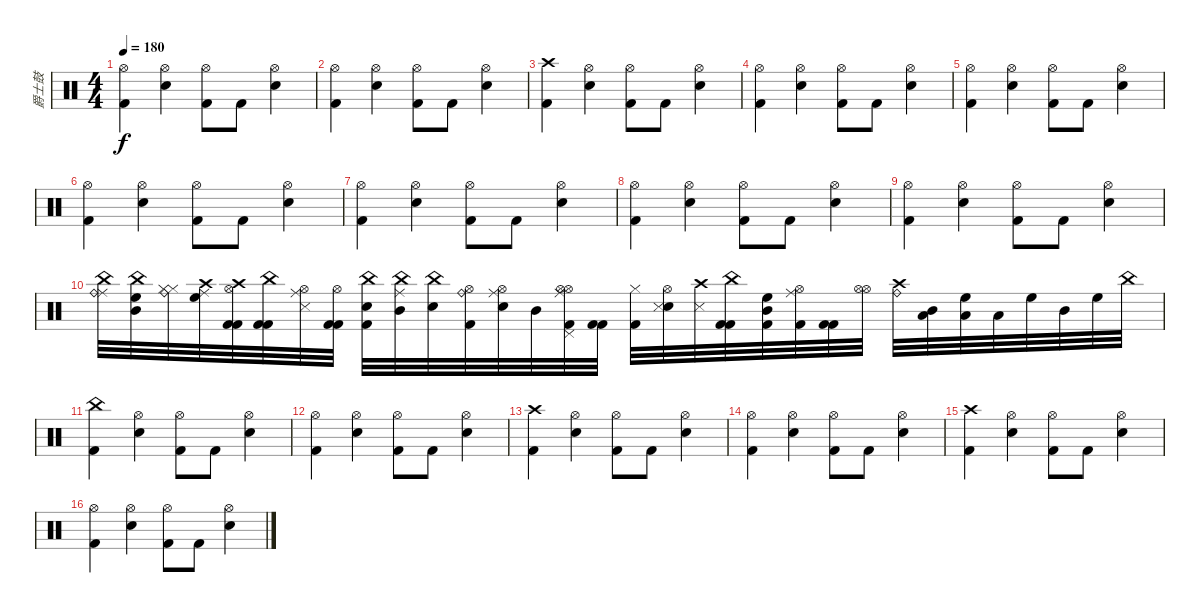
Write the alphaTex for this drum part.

\track ("爵士鼓" "爵士鼓") {instrument percussion}
\staff {score}
\articulation defaults
\ts (4 4)
\tempo 180
\clef neutral
\ks c
("Hi-Hat (open)" "Kick (hit) 2").4{dy f} ("Hi-Hat (open)" "Snare (hit) 2").4 ("Hi-Hat (open)" "Kick (hit) 2").8 "Kick (hit) 2".8 ("Hi-Hat (open)" "Snare (hit) 2").4 |
("Hi-Hat (open)" "Kick (hit) 2").4 ("Hi-Hat (open)" "Snare (hit) 2").4 ("Hi-Hat (open)" "Kick (hit) 2").8 "Kick (hit) 2".8 ("Hi-Hat (open)" "Snare (hit) 2").4 |
("Crash high (hit)" "Kick (hit) 2").4 ("Hi-Hat (open)" "Snare (hit) 2").4 ("Hi-Hat (open)" "Kick (hit) 2").8 "Kick (hit) 2".8 ("Hi-Hat (open)" "Snare (hit) 2").4 |
("Hi-Hat (open)" "Kick (hit) 2").4 ("Hi-Hat (open)" "Snare (hit) 2").4 ("Hi-Hat (open)" "Kick (hit) 2").8 "Kick (hit) 2".8 ("Hi-Hat (open)" "Snare (hit) 2").4 |
("Hi-Hat (open)" "Kick (hit) 2").4 ("Hi-Hat (open)" "Snare (hit) 2").4 ("Hi-Hat (open)" "Kick (hit) 2").8 "Kick (hit) 2".8 ("Hi-Hat (open)" "Snare (hit) 2").4 |
("Hi-Hat (open)" "Kick (hit) 2").4 ("Hi-Hat (open)" "Snare (hit) 2").4 ("Hi-Hat (open)" "Kick (hit) 2").8 "Kick (hit) 2".8 ("Hi-Hat (open)" "Snare (hit) 2").4 |
("Hi-Hat (open)" "Kick (hit) 2").4 ("Hi-Hat (open)" "Snare (hit) 2").4 ("Hi-Hat (open)" "Kick (hit) 2").8 "Kick (hit) 2".8 ("Hi-Hat (open)" "Snare (hit) 2").4 |
("Hi-Hat (open)" "Kick (hit) 2").4 ("Hi-Hat (open)" "Snare (hit) 2").4 ("Hi-Hat (open)" "Kick (hit) 2").8 "Kick (hit) 2".8 ("Hi-Hat (open)" "Snare (hit) 2").4 |
("Hi-Hat (open)" "Kick (hit) 2").4 ("Hi-Hat (open)" "Snare (hit) 2").4 ("Hi-Hat (open)" "Kick (hit) 2").8 "Kick (hit) 2".8 ("Hi-Hat (open)" "Snare (hit) 2").4 |
("Ride (middle)" "Ride (bell)" "China (hit)").32 ("China (hit)" "High Floor Tom (hit)" "Mid Tom (hit)").32 ("Hi-Hat (closed)" "Ride (bell)" "Hi-Hat (closed)").32 ("Ride (middle)" "High Floor Tom (hit)" "Crash high (hit)").32 ("Crash high (hit)" "Hi-Hat (open)" "Kick (hit) 2" "Kick (hit) 2").32 ("China (hit)" "Kick (hit) 2" "Kick (hit) 2").32 ("Hi-Hat (open)" "Snare (side stick) 3" "Ride (middle)").32 ("Kick (hit) 2" "Hi-Hat (open)" "Kick (hit) 2").32 ("China (hit)" "Kick (hit) 2" "Snare (hit) 2").32 ("Ride (middle)" "China (hit)" "Mid Tom (hit)").32 ("China (hit)" "Snare (hit) 2").32 ("Hi-Hat (open)" "Ride (bell)" "Kick (hit) 2").32 ("Ride (middle)" "Hi-Hat (open)" "Snare (hit) 2").32 "Mid Tom (hit)".32 ("Hi-Hat (open)" "Hi-Hat (open)" "Ride (middle)" "Pedal Hi-Hat (hit)" "Kick (hit) 2").32 ("Kick (hit) 2" "Kick (hit) 2").32 ("Hi-Hat (closed)" "Kick (hit) 2").32 ("Hi-Hat (open)" "Snare (hit) 2" "Snare (side stick) 3").32 ("Crash high (hit)" "Snare (side stick) 3").32 ("China (hit)" "Kick (hit) 2" "Kick (hit) 2").32 ("High Floor Tom (hit)" "Mid Tom (hit)" "Kick (hit) 2").32 ("Ride (middle)" "Hi-Hat (open)" "Kick (hit) 2").32 ("Kick (hit) 2" "Kick (hit) 2").32 ("Hi-Hat (open)" "Hi-Hat (open)").32 ("Ride (bell)" "Crash high (hit)").32 ("Mid Tom (hit)" "Low Tom (hit)").32 ("High Floor Tom (hit)" "Low Tom (hit)").32 "Low Tom (hit)".32 "High Floor Tom (hit)".32 "Mid Tom (hit)".32 "High Floor Tom (hit)".32 "China (hit)".32 |
("China (hit)" "Kick (hit) 2").4 ("Hi-Hat (open)" "Snare (hit) 2").4 ("Hi-Hat (open)" "Kick (hit) 2").8 "Kick (hit) 2".8 ("Hi-Hat (open)" "Snare (hit) 2").4 |
("Hi-Hat (open)" "Kick (hit) 2").4 ("Hi-Hat (open)" "Snare (hit) 2").4 ("Hi-Hat (open)" "Kick (hit) 2").8 "Kick (hit) 2".8 ("Hi-Hat (open)" "Snare (hit) 2").4 |
("Crash high (hit)" "Kick (hit) 2").4 ("Hi-Hat (open)" "Snare (hit) 2").4 ("Hi-Hat (open)" "Kick (hit) 2").8 "Kick (hit) 2".8 ("Hi-Hat (open)" "Snare (hit) 2").4 |
("Hi-Hat (open)" "Kick (hit) 2").4 ("Hi-Hat (open)" "Snare (hit) 2").4 ("Hi-Hat (open)" "Kick (hit) 2").8 "Kick (hit) 2".8 ("Hi-Hat (open)" "Snare (hit) 2").4 |
("Crash high (hit)" "Kick (hit) 2").4 ("Hi-Hat (open)" "Snare (hit) 2").4 ("Hi-Hat (open)" "Kick (hit) 2").8 "Kick (hit) 2".8 ("Hi-Hat (open)" "Snare (hit) 2").4 |
("Hi-Hat (open)" "Kick (hit) 2").4 ("Hi-Hat (open)" "Snare (hit) 2").4 ("Hi-Hat (open)" "Kick (hit) 2").8 "Kick (hit) 2".8 ("Hi-Hat (open)" "Snare (hit) 2").4
